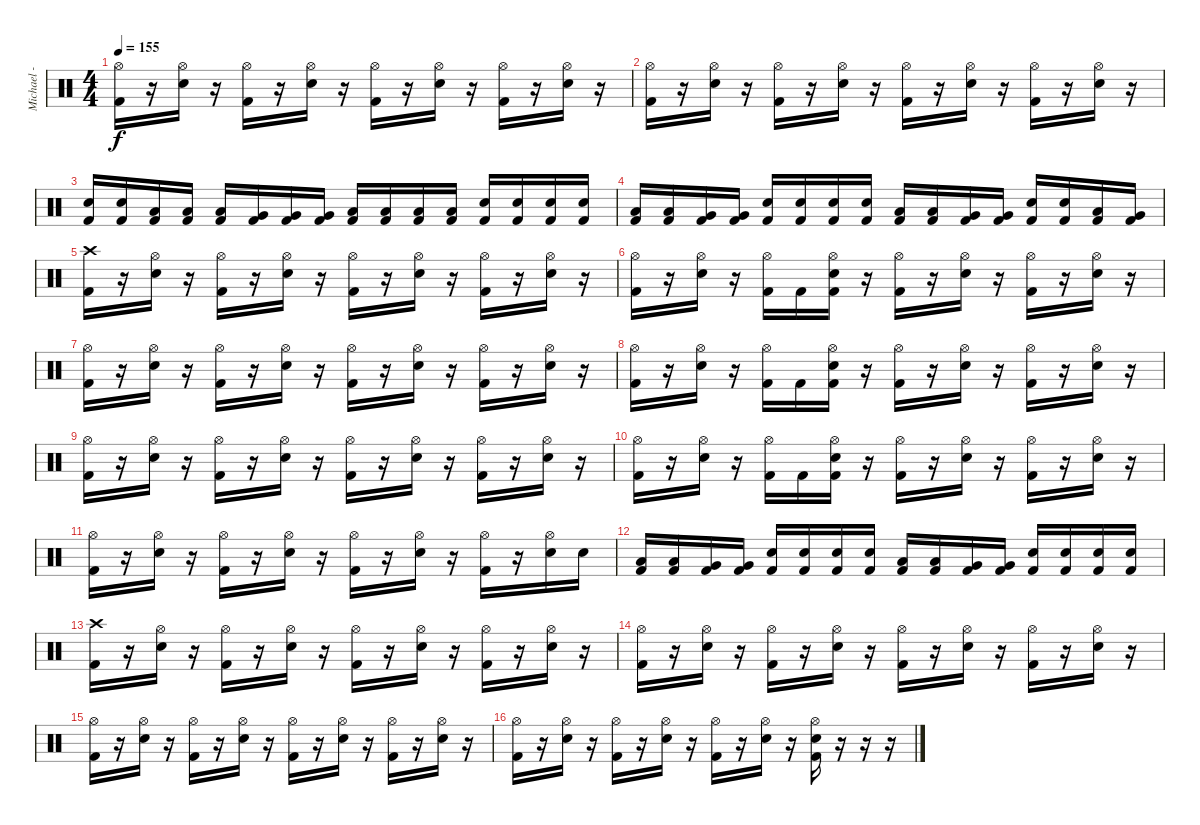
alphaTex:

\track ("Michael - Drums" "Michael - ") {instrument percussion}
\staff {score}
\articulation defaults
\ts (4 4)
\tempo 155
\clef neutral
\ks c
("Hi-Hat (open)" "Kick (hit) 2").16{dy f} r.16 ("Hi-Hat (open)" "Electric Snare (hit)").16 r.16 ("Hi-Hat (open)" "Kick (hit) 2").16 r.16 ("Hi-Hat (open)" "Electric Snare (hit)").16 r.16 ("Hi-Hat (open)" "Kick (hit) 2").16 r.16 ("Hi-Hat (open)" "Electric Snare (hit)").16 r.16 ("Hi-Hat (open)" "Kick (hit) 2").16 r.16 ("Hi-Hat (open)" "Electric Snare (hit)").16 r.16 |
("Hi-Hat (open)" "Kick (hit) 2").16 r.16 ("Hi-Hat (open)" "Electric Snare (hit)").16 r.16 ("Hi-Hat (open)" "Kick (hit) 2").16 r.16 ("Hi-Hat (open)" "Electric Snare (hit)").16 r.16 ("Hi-Hat (open)" "Kick (hit) 2").16 r.16 ("Hi-Hat (open)" "Electric Snare (hit)").16 r.16 ("Hi-Hat (open)" "Kick (hit) 2").16 r.16 ("Hi-Hat (open)" "Electric Snare (hit)").16 r.16 |
("Electric Snare (hit)" "Kick (hit) 2").16 ("Electric Snare (hit)" "Kick (hit) 2").16 ("Low Tom (hit)" "Kick (hit) 2").16 ("Low Tom (hit)" "Kick (hit) 2").16 ("Low Tom (hit)" "Kick (hit) 2").16 ("Very Low Tom (hit)" "Kick (hit) 2").16 ("Very Low Tom (hit)" "Kick (hit) 2").16 ("Very Low Tom (hit)" "Kick (hit) 2").16 ("Low Floor Tom (hit)" "Kick (hit) 2").16 ("Low Floor Tom (hit)" "Kick (hit) 2").16 ("Low Floor Tom (hit)" "Kick (hit) 2").16 ("Low Floor Tom (hit)" "Kick (hit) 2").16 ("Electric Snare (hit)" "Kick (hit) 2").16 ("Electric Snare (hit)" "Kick (hit) 2").16 ("Electric Snare (hit)" "Kick (hit) 2").16 ("Electric Snare (hit)" "Kick (hit) 2").16 |
("Low Tom (hit)" "Kick (hit) 2").16 ("Low Tom (hit)" "Kick (hit) 2").16 ("Very Low Tom (hit)" "Kick (hit) 2").16 ("Very Low Tom (hit)" "Kick (hit) 2").16 ("Electric Snare (hit)" "Kick (hit) 2").16 ("Electric Snare (hit)" "Kick (hit) 2").16 ("Electric Snare (hit)" "Kick (hit) 2").16 ("Electric Snare (hit)" "Kick (hit) 2").16 ("Low Tom (hit)" "Kick (hit) 2").16 ("Low Tom (hit)" "Kick (hit) 2").16 ("Very Low Tom (hit)" "Kick (hit) 2").16 ("Very Low Tom (hit)" "Kick (hit) 2").16 ("Electric Snare (hit)" "Kick (hit) 2").16 ("Electric Snare (hit)" "Kick (hit) 2").16 ("Low Tom (hit)" "Kick (hit) 2").16 ("Very Low Tom (hit)" "Kick (hit) 2").16 |
("Crash high (hit)" "Kick (hit) 2").16 r.16 ("Hi-Hat (open)" "Electric Snare (hit)").16 r.16 ("Hi-Hat (open)" "Kick (hit) 2").16 r.16 ("Hi-Hat (open)" "Electric Snare (hit)").16 r.16 ("Hi-Hat (open)" "Kick (hit) 2").16 r.16 ("Hi-Hat (open)" "Electric Snare (hit)").16 r.16 ("Hi-Hat (open)" "Kick (hit) 2").16 r.16 ("Hi-Hat (open)" "Electric Snare (hit)").16 r.16 |
("Hi-Hat (open)" "Kick (hit) 2").16 r.16 ("Hi-Hat (open)" "Electric Snare (hit)").16 r.16 ("Hi-Hat (open)" "Kick (hit) 2").16 "Kick (hit) 2".16 ("Hi-Hat (open)" "Electric Snare (hit)" "Kick (hit) 2").16 r.16 ("Hi-Hat (open)" "Kick (hit) 2").16 r.16 ("Hi-Hat (open)" "Electric Snare (hit)").16 r.16 ("Hi-Hat (open)" "Kick (hit) 2").16 r.16 ("Hi-Hat (open)" "Electric Snare (hit)").16 r.16 |
("Hi-Hat (open)" "Kick (hit) 2").16 r.16 ("Hi-Hat (open)" "Electric Snare (hit)").16 r.16 ("Hi-Hat (open)" "Kick (hit) 2").16 r.16 ("Hi-Hat (open)" "Electric Snare (hit)").16 r.16 ("Hi-Hat (open)" "Kick (hit) 2").16 r.16 ("Hi-Hat (open)" "Electric Snare (hit)").16 r.16 ("Hi-Hat (open)" "Kick (hit) 2").16 r.16 ("Hi-Hat (open)" "Electric Snare (hit)").16 r.16 |
("Hi-Hat (open)" "Kick (hit) 2").16 r.16 ("Hi-Hat (open)" "Electric Snare (hit)").16 r.16 ("Hi-Hat (open)" "Kick (hit) 2").16 "Kick (hit) 2".16 ("Hi-Hat (open)" "Electric Snare (hit)" "Kick (hit) 2").16 r.16 ("Hi-Hat (open)" "Kick (hit) 2").16 r.16 ("Hi-Hat (open)" "Electric Snare (hit)").16 r.16 ("Hi-Hat (open)" "Kick (hit) 2").16 r.16 ("Hi-Hat (open)" "Electric Snare (hit)").16 r.16 |
("Hi-Hat (open)" "Kick (hit) 2").16 r.16 ("Hi-Hat (open)" "Electric Snare (hit)").16 r.16 ("Hi-Hat (open)" "Kick (hit) 2").16 r.16 ("Hi-Hat (open)" "Electric Snare (hit)").16 r.16 ("Hi-Hat (open)" "Kick (hit) 2").16 r.16 ("Hi-Hat (open)" "Electric Snare (hit)").16 r.16 ("Hi-Hat (open)" "Kick (hit) 2").16 r.16 ("Hi-Hat (open)" "Electric Snare (hit)").16 r.16 |
("Hi-Hat (open)" "Kick (hit) 2").16 r.16 ("Hi-Hat (open)" "Electric Snare (hit)").16 r.16 ("Hi-Hat (open)" "Kick (hit) 2").16 "Kick (hit) 2".16 ("Hi-Hat (open)" "Electric Snare (hit)" "Kick (hit) 2").16 r.16 ("Hi-Hat (open)" "Kick (hit) 2").16 r.16 ("Hi-Hat (open)" "Electric Snare (hit)").16 r.16 ("Hi-Hat (open)" "Kick (hit) 2").16 r.16 ("Hi-Hat (open)" "Electric Snare (hit)").16 r.16 |
("Hi-Hat (open)" "Kick (hit) 2").16 r.16 ("Hi-Hat (open)" "Electric Snare (hit)").16 r.16 ("Hi-Hat (open)" "Kick (hit) 2").16 r.16 ("Hi-Hat (open)" "Electric Snare (hit)").16 r.16 ("Hi-Hat (open)" "Kick (hit) 2").16 r.16 ("Hi-Hat (open)" "Electric Snare (hit)").16 r.16 ("Hi-Hat (open)" "Kick (hit) 2").16 r.16 ("Hi-Hat (open)" "Electric Snare (hit)").16 "Electric Snare (hit)".16 |
("Low Tom (hit)" "Kick (hit) 2").16 ("Low Tom (hit)" "Kick (hit) 2").16 ("Very Low Tom (hit)" "Kick (hit) 2").16 ("Very Low Tom (hit)" "Kick (hit) 2").16 ("Electric Snare (hit)" "Kick (hit) 2").16 ("Electric Snare (hit)" "Kick (hit) 2").16 ("Electric Snare (hit)" "Kick (hit) 2").16 ("Electric Snare (hit)" "Kick (hit) 2").16 ("Low Tom (hit)" "Kick (hit) 2").16 ("Low Tom (hit)" "Kick (hit) 2").16 ("Very Low Tom (hit)" "Kick (hit) 2").16 ("Very Low Tom (hit)" "Kick (hit) 2").16 ("Electric Snare (hit)" "Kick (hit) 2").16 ("Electric Snare (hit)" "Kick (hit) 2").16 ("Electric Snare (hit)" "Kick (hit) 2").16 ("Electric Snare (hit)" "Kick (hit) 2").16 |
("Crash high (hit)" "Kick (hit) 2").16 r.16 ("Hi-Hat (open)" "Electric Snare (hit)").16 r.16 ("Hi-Hat (open)" "Kick (hit) 2").16 r.16 ("Hi-Hat (open)" "Electric Snare (hit)").16 r.16 ("Hi-Hat (open)" "Kick (hit) 2").16 r.16 ("Hi-Hat (open)" "Electric Snare (hit)").16 r.16 ("Hi-Hat (open)" "Kick (hit) 2").16 r.16 ("Hi-Hat (open)" "Electric Snare (hit)").16 r.16 |
("Hi-Hat (open)" "Kick (hit) 2").16 r.16 ("Hi-Hat (open)" "Electric Snare (hit)").16 r.16 ("Hi-Hat (open)" "Kick (hit) 2").16 r.16 ("Hi-Hat (open)" "Electric Snare (hit)").16 r.16 ("Hi-Hat (open)" "Kick (hit) 2").16 r.16 ("Hi-Hat (open)" "Electric Snare (hit)").16 r.16 ("Hi-Hat (open)" "Kick (hit) 2").16 r.16 ("Hi-Hat (open)" "Electric Snare (hit)").16 r.16 |
("Hi-Hat (open)" "Kick (hit) 2").16 r.16 ("Hi-Hat (open)" "Electric Snare (hit)").16 r.16 ("Hi-Hat (open)" "Kick (hit) 2").16 r.16 ("Hi-Hat (open)" "Electric Snare (hit)").16 r.16 ("Hi-Hat (open)" "Kick (hit) 2").16 r.16 ("Hi-Hat (open)" "Electric Snare (hit)").16 r.16 ("Hi-Hat (open)" "Kick (hit) 2").16 r.16 ("Hi-Hat (open)" "Electric Snare (hit)").16 r.16 |
("Hi-Hat (open)" "Kick (hit) 2").16 r.16 ("Hi-Hat (open)" "Electric Snare (hit)").16 r.16 ("Hi-Hat (open)" "Kick (hit) 2").16 r.16 ("Hi-Hat (open)" "Electric Snare (hit)").16 r.16 ("Hi-Hat (open)" "Kick (hit) 2").16 r.16 ("Hi-Hat (open)" "Electric Snare (hit)").16 r.16 ("Hi-Hat (open)" "Electric Snare (hit)" "Kick (hit) 2").16 r.16 r.16 r.16
